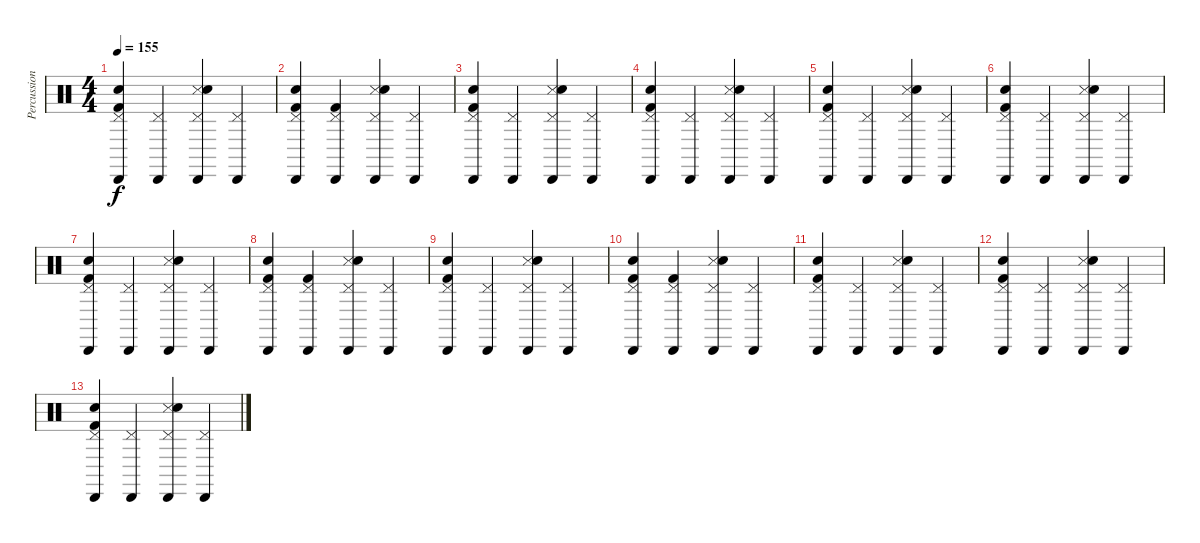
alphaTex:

\track ("Percussion" "Percussion") {instrument percussion}
\staff {score}
\articulation defaults
\ts (4 4)
\tempo 155
\clef neutral
\ks c
("Electric Snare (hit)" "Cabasa (hit)" "Pedal Hi-Hat (hit)" "Kick (hit) 2").4{dy f} ("Cabasa (hit)" "Pedal Hi-Hat (hit)").4 ("Snare (side stick) 3" "Snare (hit) 2" "Cabasa (hit)" "Pedal Hi-Hat (hit)").4 ("Cabasa (hit)" "Pedal Hi-Hat (hit)").4 |
("Electric Snare (hit)" "Cabasa (hit)" "Pedal Hi-Hat (hit)" "Kick (hit) 2").4 ("Cabasa (hit)" "Pedal Hi-Hat (hit)" "Kick (hit) 2").4 ("Snare (side stick) 3" "Snare (hit) 2" "Cabasa (hit)" "Pedal Hi-Hat (hit)").4 ("Cabasa (hit)" "Pedal Hi-Hat (hit)").4 |
("Electric Snare (hit)" "Cabasa (hit)" "Pedal Hi-Hat (hit)" "Kick (hit) 2").4 ("Cabasa (hit)" "Pedal Hi-Hat (hit)").4 ("Snare (side stick) 3" "Snare (hit) 2" "Cabasa (hit)" "Pedal Hi-Hat (hit)").4 ("Cabasa (hit)" "Pedal Hi-Hat (hit)").4 |
("Electric Snare (hit)" "Cabasa (hit)" "Pedal Hi-Hat (hit)" "Kick (hit) 2").4 ("Cabasa (hit)" "Pedal Hi-Hat (hit)").4 ("Snare (side stick) 3" "Snare (hit) 2" "Cabasa (hit)" "Pedal Hi-Hat (hit)").4 ("Cabasa (hit)" "Pedal Hi-Hat (hit)").4 |
("Electric Snare (hit)" "Cabasa (hit)" "Pedal Hi-Hat (hit)" "Kick (hit) 2").4 ("Cabasa (hit)" "Pedal Hi-Hat (hit)").4 ("Snare (side stick) 3" "Snare (hit) 2" "Cabasa (hit)" "Pedal Hi-Hat (hit)").4 ("Cabasa (hit)" "Pedal Hi-Hat (hit)").4 |
("Electric Snare (hit)" "Cabasa (hit)" "Pedal Hi-Hat (hit)" "Kick (hit) 2").4 ("Cabasa (hit)" "Pedal Hi-Hat (hit)").4 ("Snare (side stick) 3" "Snare (hit) 2" "Cabasa (hit)" "Pedal Hi-Hat (hit)").4 ("Cabasa (hit)" "Pedal Hi-Hat (hit)").4 |
("Electric Snare (hit)" "Cabasa (hit)" "Pedal Hi-Hat (hit)" "Kick (hit) 2").4 ("Cabasa (hit)" "Pedal Hi-Hat (hit)").4 ("Snare (side stick) 3" "Snare (hit) 2" "Cabasa (hit)" "Pedal Hi-Hat (hit)").4 ("Cabasa (hit)" "Pedal Hi-Hat (hit)").4 |
("Electric Snare (hit)" "Cabasa (hit)" "Pedal Hi-Hat (hit)" "Kick (hit) 2").4 ("Cabasa (hit)" "Pedal Hi-Hat (hit)" "Kick (hit) 2").4 ("Snare (side stick) 3" "Snare (hit) 2" "Cabasa (hit)" "Pedal Hi-Hat (hit)").4 ("Cabasa (hit)" "Pedal Hi-Hat (hit)").4 |
("Electric Snare (hit)" "Cabasa (hit)" "Pedal Hi-Hat (hit)" "Kick (hit) 2").4 ("Cabasa (hit)" "Pedal Hi-Hat (hit)").4 ("Snare (side stick) 3" "Snare (hit) 2" "Cabasa (hit)" "Pedal Hi-Hat (hit)").4 ("Cabasa (hit)" "Pedal Hi-Hat (hit)").4 |
("Electric Snare (hit)" "Cabasa (hit)" "Pedal Hi-Hat (hit)" "Kick (hit) 2").4 ("Cabasa (hit)" "Pedal Hi-Hat (hit)" "Kick (hit) 2").4 ("Snare (side stick) 3" "Snare (hit) 2" "Cabasa (hit)" "Pedal Hi-Hat (hit)").4 ("Cabasa (hit)" "Pedal Hi-Hat (hit)").4 |
("Electric Snare (hit)" "Cabasa (hit)" "Pedal Hi-Hat (hit)" "Kick (hit) 2").4 ("Cabasa (hit)" "Pedal Hi-Hat (hit)").4 ("Snare (side stick) 3" "Snare (hit) 2" "Cabasa (hit)" "Pedal Hi-Hat (hit)").4 ("Cabasa (hit)" "Pedal Hi-Hat (hit)").4 |
("Electric Snare (hit)" "Cabasa (hit)" "Pedal Hi-Hat (hit)" "Kick (hit) 2").4 ("Cabasa (hit)" "Pedal Hi-Hat (hit)").4 ("Snare (side stick) 3" "Snare (hit) 2" "Cabasa (hit)" "Pedal Hi-Hat (hit)").4 ("Cabasa (hit)" "Pedal Hi-Hat (hit)").4 |
("Electric Snare (hit)" "Cabasa (hit)" "Pedal Hi-Hat (hit)" "Kick (hit) 2").4 ("Cabasa (hit)" "Pedal Hi-Hat (hit)").4 ("Snare (side stick) 3" "Snare (hit) 2" "Cabasa (hit)" "Pedal Hi-Hat (hit)").4 ("Cabasa (hit)" "Pedal Hi-Hat (hit)").4
